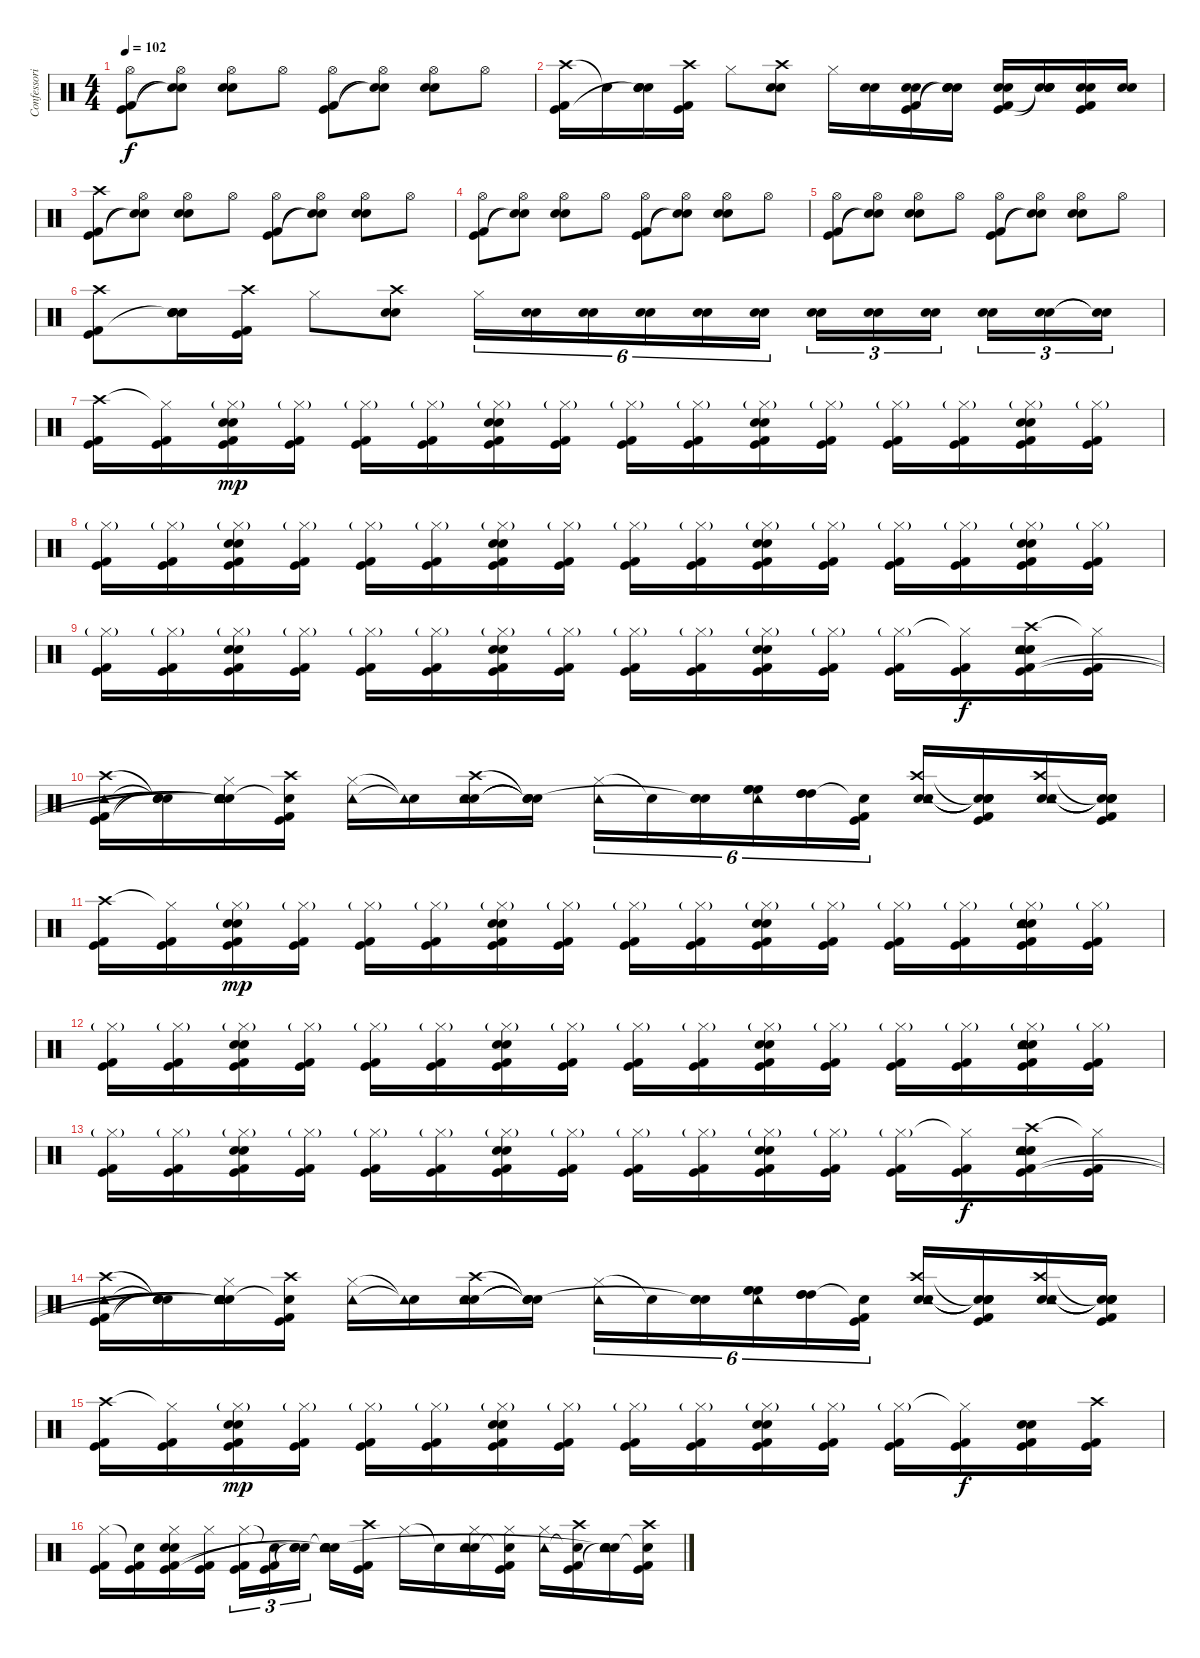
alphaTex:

\track ("Confessori" "Confessori") {instrument percussion}
\staff {score}
\articulation defaults
\ts (4 4)
\tempo 102
\clef neutral
\ks c
("Hi-Hat (open)" "Kick (hit)" "Kick (hit) 2").8{dy f} ("Hi-Hat (open)" "Snare (hit)"{t} "Snare (hit)"{t}).8 ("Hi-Hat (open)" "Electric Snare (hit)" "Snare (hit) 2").8 "Hi-Hat (open)".8 ("Hi-Hat (open)" "Kick (hit)" "Kick (hit) 2").8 ("Hi-Hat (open)" "Snare (hit)"{t} "Snare (hit)"{t}).8 ("Hi-Hat (open)" "Electric Snare (hit)" "Snare (hit) 2").8 "Hi-Hat (open)".8 |
("Crash high (hit)" "Kick (hit) 2" "Kick (hit)").16 "Snare (hit)"{t}.16 ("Electric Snare (hit)" "Snare (hit) 2" "Snare (hit)"{t} "Snare (hit)").16 ("Crash high (hit)" "Kick (hit)" "Kick (hit) 2").16 "Hi-Hat (closed)".8 ("Crash high (hit)" "Electric Snare (hit)" "Snare (hit) 2").8 "Hi-Hat (closed)".16 ("Electric Snare (hit)" "Snare (hit) 2").16 ("Electric Snare (hit)" "Snare (hit) 2" "Kick (hit) 2" "Kick (hit)").16 ("Electric Snare (hit)" "Snare (hit) 2" "Snare (hit)"{t} "Snare (hit)"{t}).16 ("Electric Snare (hit)" "Snare (hit) 2" "Kick (hit) 2" "Kick (hit)").16 ("Electric Snare (hit)" "Snare (hit) 2" "Snare (hit)"{t} "Snare (hit)"{t}).16 ("Electric Snare (hit)" "Snare (hit) 2" "Kick (hit) 2" "Kick (hit)").16 ("Electric Snare (hit)" "Snare (hit) 2").16 |
("Crash high (hit)" "Kick (hit)" "Kick (hit) 2").8 ("Hi-Hat (open)" "Snare (hit)"{t} "Snare (hit)"{t}).8 ("Hi-Hat (open)" "Electric Snare (hit)" "Snare (hit) 2").8 "Hi-Hat (open)".8 ("Hi-Hat (open)" "Kick (hit)" "Kick (hit) 2").8 ("Hi-Hat (open)" "Snare (hit)"{t} "Snare (hit)"{t}).8 ("Hi-Hat (open)" "Electric Snare (hit)" "Snare (hit) 2").8 "Hi-Hat (open)".8 |
("Hi-Hat (open)" "Kick (hit)" "Kick (hit) 2").8 ("Hi-Hat (open)" "Snare (hit)"{t} "Snare (hit)"{t}).8 ("Hi-Hat (open)" "Electric Snare (hit)" "Snare (hit) 2").8 "Hi-Hat (open)".8 ("Hi-Hat (open)" "Kick (hit)" "Kick (hit) 2").8 ("Hi-Hat (open)" "Snare (hit)"{t} "Snare (hit)"{t}).8 ("Hi-Hat (open)" "Electric Snare (hit)" "Snare (hit) 2").8 "Hi-Hat (open)".8 |
("Hi-Hat (open)" "Kick (hit)" "Kick (hit) 2").8 ("Hi-Hat (open)" "Snare (hit)"{t} "Snare (hit)"{t}).8 ("Hi-Hat (open)" "Electric Snare (hit)" "Snare (hit) 2").8 "Hi-Hat (open)".8 ("Hi-Hat (open)" "Kick (hit)" "Kick (hit) 2").8 ("Hi-Hat (open)" "Snare (hit)"{t} "Snare (hit)"{t}).8 ("Hi-Hat (open)" "Electric Snare (hit)" "Snare (hit) 2").8 "Hi-Hat (open)".8 |
("Crash high (hit)" "Kick (hit)" "Kick (hit) 2").8 ("Electric Snare (hit)" "Snare (hit) 2" "Snare (hit)"{t} "Snare (hit)").16 ("Crash high (hit)" "Kick (hit)" "Kick (hit) 2").16 "Hi-Hat (closed)".8 ("Crash high (hit)" "Electric Snare (hit)" "Snare (hit) 2").8 "Hi-Hat (closed)".16{tu (6 4)} ("Electric Snare (hit)" "Snare (hit) 2").16{tu (6 4)} ("Electric Snare (hit)" "Snare (hit) 2").16{tu (6 4)} ("Electric Snare (hit)" "Snare (hit) 2").16{tu (6 4)} ("Electric Snare (hit)" "Snare (hit) 2").16{tu (6 4)} ("Electric Snare (hit)" "Snare (hit) 2").16{tu (6 4)} ("Electric Snare (hit)" "Snare (hit) 2").16{tu (3 2)} ("Electric Snare (hit)" "Snare (hit) 2").16{tu (3 2)} ("Electric Snare (hit)" "Snare (hit) 2").16{tu (3 2)} ("Electric Snare (hit)" "Snare (hit) 2").16{tu (3 2)} ("Electric Snare (hit)" "Snare (hit) 2").16{tu (3 2)} ("Snare (hit)"{t} "Snare (hit)"{t}).16{tu (3 2)} |
("Crash high (hit)" "Kick (hit)" "Kick (hit) 2").16 ("Hi-Hat (closed)"{t} "Kick (hit)" "Kick (hit) 2").16 ("Hi-Hat (closed)"{g} "Electric Snare (hit)" "Snare (hit) 2" "Kick (hit)" "Kick (hit) 2").16{dy mp} ("Hi-Hat (closed)"{g} "Kick (hit)" "Kick (hit) 2").16 ("Hi-Hat (closed)"{g} "Kick (hit)" "Kick (hit) 2").16 ("Hi-Hat (closed)"{g} "Kick (hit)" "Kick (hit) 2").16 ("Hi-Hat (closed)"{g} "Electric Snare (hit)" "Snare (hit) 2" "Kick (hit)" "Kick (hit) 2").16 ("Hi-Hat (closed)"{g} "Kick (hit)" "Kick (hit) 2").16 ("Hi-Hat (closed)"{g} "Kick (hit)" "Kick (hit) 2").16 ("Hi-Hat (closed)"{g} "Kick (hit)" "Kick (hit) 2").16 ("Hi-Hat (closed)"{g} "Electric Snare (hit)" "Snare (hit) 2" "Kick (hit)" "Kick (hit) 2").16 ("Hi-Hat (closed)"{g} "Kick (hit)" "Kick (hit) 2").16 ("Hi-Hat (closed)"{g} "Kick (hit)" "Kick (hit) 2").16 ("Hi-Hat (closed)"{g} "Kick (hit)" "Kick (hit) 2").16 ("Hi-Hat (closed)"{g} "Electric Snare (hit)" "Snare (hit) 2" "Kick (hit)" "Kick (hit) 2").16 ("Hi-Hat (closed)"{g} "Kick (hit)" "Kick (hit) 2").16 |
("Hi-Hat (closed)"{g} "Kick (hit)" "Kick (hit) 2").16 ("Hi-Hat (closed)"{g} "Kick (hit)" "Kick (hit) 2").16 ("Hi-Hat (closed)"{g} "Electric Snare (hit)" "Snare (hit) 2" "Kick (hit)" "Kick (hit) 2").16 ("Hi-Hat (closed)"{g} "Kick (hit)" "Kick (hit) 2").16 ("Hi-Hat (closed)"{g} "Kick (hit)" "Kick (hit) 2").16 ("Hi-Hat (closed)"{g} "Kick (hit)" "Kick (hit) 2").16 ("Hi-Hat (closed)"{g} "Electric Snare (hit)" "Snare (hit) 2" "Kick (hit)" "Kick (hit) 2").16 ("Hi-Hat (closed)"{g} "Kick (hit)" "Kick (hit) 2").16 ("Hi-Hat (closed)"{g} "Kick (hit)" "Kick (hit) 2").16 ("Hi-Hat (closed)"{g} "Kick (hit)" "Kick (hit) 2").16 ("Hi-Hat (closed)"{g} "Electric Snare (hit)" "Snare (hit) 2" "Kick (hit)" "Kick (hit) 2").16 ("Hi-Hat (closed)"{g} "Kick (hit)" "Kick (hit) 2").16 ("Hi-Hat (closed)"{g} "Kick (hit)" "Kick (hit) 2").16 ("Hi-Hat (closed)"{g} "Kick (hit)" "Kick (hit) 2").16 ("Hi-Hat (closed)"{g} "Electric Snare (hit)" "Snare (hit) 2" "Kick (hit)" "Kick (hit) 2").16 ("Hi-Hat (closed)"{g} "Kick (hit)" "Kick (hit) 2").16 |
("Hi-Hat (closed)"{g} "Kick (hit)" "Kick (hit) 2").16 ("Hi-Hat (closed)"{g} "Kick (hit)" "Kick (hit) 2").16 ("Hi-Hat (closed)"{g} "Electric Snare (hit)" "Snare (hit) 2" "Kick (hit)" "Kick (hit) 2").16 ("Hi-Hat (closed)"{g} "Kick (hit)" "Kick (hit) 2").16 ("Hi-Hat (closed)"{g} "Kick (hit)" "Kick (hit) 2").16 ("Hi-Hat (closed)"{g} "Kick (hit)" "Kick (hit) 2").16 ("Hi-Hat (closed)"{g} "Electric Snare (hit)" "Snare (hit) 2" "Kick (hit)" "Kick (hit) 2").16 ("Hi-Hat (closed)"{g} "Kick (hit)" "Kick (hit) 2").16 ("Hi-Hat (closed)"{g} "Kick (hit)" "Kick (hit) 2").16 ("Hi-Hat (closed)"{g} "Kick (hit)" "Kick (hit) 2").16 ("Hi-Hat (closed)"{g} "Electric Snare (hit)" "Snare (hit) 2" "Kick (hit)" "Kick (hit) 2").16 ("Hi-Hat (closed)"{g} "Kick (hit)" "Kick (hit) 2").16 ("Hi-Hat (closed)"{g} "Kick (hit)" "Kick (hit) 2").16 ("Hi-Hat (closed)"{t} "Kick (hit)" "Kick (hit) 2").16{dy f} ("Crash high (hit)" "Electric Snare (hit)" "Snare (hit) 2" "Tambourine (hit)" "Kick (hit)" "Kick (hit) 2").16 ("Hi-Hat (closed)"{t} "Kick (hit)" "Kick (hit) 2").16 |
("Crash high (hit)" "Tambourine (hit)" "Kick (hit)" "Kick (hit) 2").16 ("Snare (hit)"{t} "Snare (hit)"{t} "Snare (hit)"{t} "Snare (hit)"{t}).16 ("Hi-Hat (closed)" "Electric Snare (hit)" "Snare (hit) 2" "Tambourine (hit)" "Snare (hit)"{t} "Snare (hit)"{t}).16 ("Crash high (hit)" "Snare (hit)"{t} "Kick (hit) 2" "Kick (hit)").16 ("Hi-Hat (closed)" "Tambourine (hit)").16 ("Snare (hit)"{t} "Tambourine (hit)"{t}).16 ("Crash high (hit)" "Electric Snare (hit)" "Snare (hit) 2" "Tambourine (hit)").16 ("Snare (hit)"{t} "Snare (hit)"{t} "Snare (hit)"{t} "Snare (hit)"{t}).16 ("Hi-Hat (closed)" "Tambourine (hit)").16{tu (6 4)} "Snare (hit)"{t}.16{tu (6 4)} ("Electric Snare (hit)" "Snare (hit) 2" "Snare (hit)"{t}).16{tu (6 4)} ("Tambourine (hit)" "High Floor Tom (hit)" "High Floor Tom (hit)" "High Floor Tom (hit)").16{tu (6 4)} ("High Tom (hit)" "High Tom (hit)" "High Tom (hit)").16{tu (6 4)} ("Snare (hit)"{t} "Kick (hit)" "Kick (hit) 2").16{tu (6 4)} ("Crash high (hit)" "Electric Snare (hit)" "Snare (hit) 2" "Tambourine (hit)").16 ("Snare (hit)"{t} "Snare (hit)"{t} "Snare (hit)"{t} "Snare (hit)"{t} "Kick (hit)" "Kick (hit) 2").16 ("Crash high (hit)" "Electric Snare (hit)" "Snare (hit) 2" "Tambourine (hit)").16 ("Snare (hit)"{t} "Snare (hit)"{t} "Snare (hit)"{t} "Snare (hit)"{t} "Kick (hit)" "Kick (hit) 2").16 |
("Crash high (hit)" "Kick (hit)" "Kick (hit) 2").16 ("Hi-Hat (closed)"{t} "Kick (hit)" "Kick (hit) 2").16 ("Hi-Hat (closed)"{g} "Electric Snare (hit)" "Snare (hit) 2" "Kick (hit)" "Kick (hit) 2").16{dy mp} ("Hi-Hat (closed)"{g} "Kick (hit)" "Kick (hit) 2").16 ("Hi-Hat (closed)"{g} "Kick (hit)" "Kick (hit) 2").16 ("Hi-Hat (closed)"{g} "Kick (hit)" "Kick (hit) 2").16 ("Hi-Hat (closed)"{g} "Electric Snare (hit)" "Snare (hit) 2" "Kick (hit)" "Kick (hit) 2").16 ("Hi-Hat (closed)"{g} "Kick (hit)" "Kick (hit) 2").16 ("Hi-Hat (closed)"{g} "Kick (hit)" "Kick (hit) 2").16 ("Hi-Hat (closed)"{g} "Kick (hit)" "Kick (hit) 2").16 ("Hi-Hat (closed)"{g} "Electric Snare (hit)" "Snare (hit) 2" "Kick (hit)" "Kick (hit) 2").16 ("Hi-Hat (closed)"{g} "Kick (hit)" "Kick (hit) 2").16 ("Hi-Hat (closed)"{g} "Kick (hit)" "Kick (hit) 2").16 ("Hi-Hat (closed)"{g} "Kick (hit)" "Kick (hit) 2").16 ("Hi-Hat (closed)"{g} "Electric Snare (hit)" "Snare (hit) 2" "Tambourine (hit)" "Kick (hit)" "Kick (hit) 2").16 ("Hi-Hat (closed)"{g} "Kick (hit)" "Kick (hit) 2").16 |
("Hi-Hat (closed)"{g} "Kick (hit)" "Kick (hit) 2").16 ("Hi-Hat (closed)"{g} "Kick (hit)" "Kick (hit) 2").16 ("Hi-Hat (closed)"{g} "Electric Snare (hit)" "Snare (hit) 2" "Kick (hit)" "Kick (hit) 2").16 ("Hi-Hat (closed)"{g} "Kick (hit)" "Kick (hit) 2").16 ("Hi-Hat (closed)"{g} "Kick (hit)" "Kick (hit) 2").16 ("Hi-Hat (closed)"{g} "Kick (hit)" "Kick (hit) 2").16 ("Hi-Hat (closed)"{g} "Electric Snare (hit)" "Snare (hit) 2" "Kick (hit)" "Kick (hit) 2").16 ("Hi-Hat (closed)"{g} "Kick (hit)" "Kick (hit) 2").16 ("Hi-Hat (closed)"{g} "Kick (hit)" "Kick (hit) 2").16 ("Hi-Hat (closed)"{g} "Kick (hit)" "Kick (hit) 2").16 ("Hi-Hat (closed)"{g} "Electric Snare (hit)" "Snare (hit) 2" "Kick (hit)" "Kick (hit) 2").16 ("Hi-Hat (closed)"{g} "Kick (hit)" "Kick (hit) 2").16 ("Hi-Hat (closed)"{g} "Kick (hit)" "Kick (hit) 2").16 ("Hi-Hat (closed)"{g} "Kick (hit)" "Kick (hit) 2").16 ("Hi-Hat (closed)"{g} "Electric Snare (hit)" "Snare (hit) 2" "Tambourine (hit)" "Kick (hit)" "Kick (hit) 2").16 ("Hi-Hat (closed)"{g} "Kick (hit)" "Kick (hit) 2").16 |
("Hi-Hat (closed)"{g} "Kick (hit)" "Kick (hit) 2").16 ("Hi-Hat (closed)"{g} "Kick (hit)" "Kick (hit) 2").16 ("Hi-Hat (closed)"{g} "Electric Snare (hit)" "Snare (hit) 2" "Kick (hit)" "Kick (hit) 2").16 ("Hi-Hat (closed)"{g} "Kick (hit)" "Kick (hit) 2").16 ("Hi-Hat (closed)"{g} "Kick (hit)" "Kick (hit) 2").16 ("Hi-Hat (closed)"{g} "Kick (hit)" "Kick (hit) 2").16 ("Hi-Hat (closed)"{g} "Electric Snare (hit)" "Snare (hit) 2" "Kick (hit)" "Kick (hit) 2").16 ("Hi-Hat (closed)"{g} "Kick (hit)" "Kick (hit) 2").16 ("Hi-Hat (closed)"{g} "Kick (hit)" "Kick (hit) 2").16 ("Hi-Hat (closed)"{g} "Kick (hit)" "Kick (hit) 2").16 ("Hi-Hat (closed)"{g} "Electric Snare (hit)" "Snare (hit) 2" "Kick (hit)" "Kick (hit) 2").16 ("Hi-Hat (closed)"{g} "Kick (hit)" "Kick (hit) 2").16 ("Hi-Hat (closed)"{g} "Kick (hit)" "Kick (hit) 2").16 ("Hi-Hat (closed)"{t} "Kick (hit)" "Kick (hit) 2").16{dy f} ("Crash high (hit)" "Electric Snare (hit)" "Snare (hit) 2" "Tambourine (hit)" "Kick (hit)" "Kick (hit) 2").16 ("Hi-Hat (closed)"{t} "Kick (hit)" "Kick (hit) 2").16 |
("Crash high (hit)" "Tambourine (hit)" "Kick (hit)" "Kick (hit) 2").16 ("Snare (hit)"{t} "Snare (hit)"{t} "Snare (hit)"{t} "Snare (hit)"{t}).16 ("Hi-Hat (closed)" "Electric Snare (hit)" "Snare (hit) 2" "Tambourine (hit)" "Snare (hit)"{t} "Snare (hit)"{t}).16 ("Crash high (hit)" "Snare (hit)"{t} "Kick (hit) 2" "Kick (hit)").16 ("Hi-Hat (closed)" "Tambourine (hit)").16 ("Snare (hit)"{t} "Tambourine (hit)"{t}).16 ("Crash high (hit)" "Electric Snare (hit)" "Snare (hit) 2" "Tambourine (hit)").16 ("Snare (hit)"{t} "Snare (hit)"{t} "Snare (hit)"{t} "Snare (hit)"{t}).16 ("Hi-Hat (closed)" "Tambourine (hit)").16{tu (6 4)} "Snare (hit)"{t}.16{tu (6 4)} ("Electric Snare (hit)" "Snare (hit) 2" "Snare (hit)"{t}).16{tu (6 4)} ("Tambourine (hit)" "High Floor Tom (hit)" "High Floor Tom (hit)" "High Floor Tom (hit)").16{tu (6 4)} ("High Tom (hit)" "High Tom (hit)" "High Tom (hit)").16{tu (6 4)} ("Snare (hit)"{t} "Kick (hit)" "Kick (hit) 2").16{tu (6 4)} ("Crash high (hit)" "Electric Snare (hit)" "Snare (hit) 2" "Tambourine (hit)").16 ("Snare (hit)"{t} "Snare (hit)"{t} "Snare (hit)"{t} "Snare (hit)"{t} "Kick (hit)" "Kick (hit) 2").16 ("Crash high (hit)" "Electric Snare (hit)" "Snare (hit) 2" "Tambourine (hit)").16 ("Snare (hit)"{t} "Snare (hit)"{t} "Snare (hit)"{t} "Snare (hit)"{t} "Kick (hit)" "Kick (hit) 2").16 |
("Crash high (hit)" "Kick (hit)" "Kick (hit) 2").16 ("Hi-Hat (closed)"{t} "Kick (hit)" "Kick (hit) 2").16 ("Hi-Hat (closed)"{g} "Electric Snare (hit)" "Snare (hit) 2" "Kick (hit)" "Kick (hit) 2").16{dy mp} ("Hi-Hat (closed)"{g} "Kick (hit)" "Kick (hit) 2").16 ("Hi-Hat (closed)"{g} "Kick (hit)" "Kick (hit) 2").16 ("Hi-Hat (closed)"{g} "Kick (hit)" "Kick (hit) 2").16 ("Hi-Hat (closed)"{g} "Electric Snare (hit)" "Snare (hit) 2" "Kick (hit)" "Kick (hit) 2").16 ("Hi-Hat (closed)"{g} "Kick (hit)" "Kick (hit) 2").16 ("Hi-Hat (closed)"{g} "Kick (hit)" "Kick (hit) 2").16 ("Hi-Hat (closed)"{g} "Kick (hit)" "Kick (hit) 2").16 ("Hi-Hat (closed)"{g} "Electric Snare (hit)" "Snare (hit) 2" "Kick (hit)" "Kick (hit) 2").16 ("Hi-Hat (closed)"{g} "Kick (hit)" "Kick (hit) 2").16 ("Hi-Hat (closed)"{g} "Kick (hit)" "Kick (hit) 2").16 ("Hi-Hat (closed)"{t} "Kick (hit)" "Kick (hit) 2").16{dy f} ("Electric Snare (hit)" "Snare (hit) 2" "Kick (hit)" "Kick (hit) 2").16 ("Crash high (hit)" "Kick (hit)" "Kick (hit) 2").16 |
("Hi-Hat (closed)" "Kick (hit)" "Kick (hit) 2").16 ("Snare (hit)"{t} "Kick (hit)" "Kick (hit) 2").16 ("Hi-Hat (closed)" "Electric Snare (hit)" "Snare (hit) 2" "Kick (hit)" "Kick (hit) 2").16 ("Hi-Hat (closed)" "Kick (hit)" "Kick (hit) 2").16 ("Hi-Hat (closed)" "Kick (hit)" "Kick (hit) 2").16{tu (3 2)} ("Snare (hit)"{t} "Kick (hit) 2" "Kick (hit)").16{tu (3 2)} ("Electric Snare (hit)" "Snare (hit) 2" "Snare (hit)"{t} "Snare (hit)"{t}).16{tu (3 2)} ("Electric Snare (hit)" "Snare (hit) 2" "Tambourine (hit)" "Snare (hit)"{t} "Snare (hit)"{t}).16 ("Crash high (hit)" "Kick (hit)" "Kick (hit) 2").16 "Hi-Hat (closed)".16 "Snare (hit)"{t}.16 ("Hi-Hat (closed)" "Electric Snare (hit)" "Snare (hit) 2" "Tambourine (hit)").16 ("Hi-Hat (closed)" "Snare (hit)"{t} "Kick (hit) 2" "Kick (hit)").16 ("Hi-Hat (closed)" "Tambourine (hit)").16 ("Crash high (hit)" "Snare (hit)"{t} "Kick (hit) 2" "Kick (hit)").16 ("Electric Snare (hit)" "Snare (hit) 2" "Tambourine (hit)" "Snare (hit)"{t} "Snare (hit)"{t}).16 ("Crash high (hit)" "Snare (hit)"{t} "Kick (hit) 2" "Kick (hit)").16
